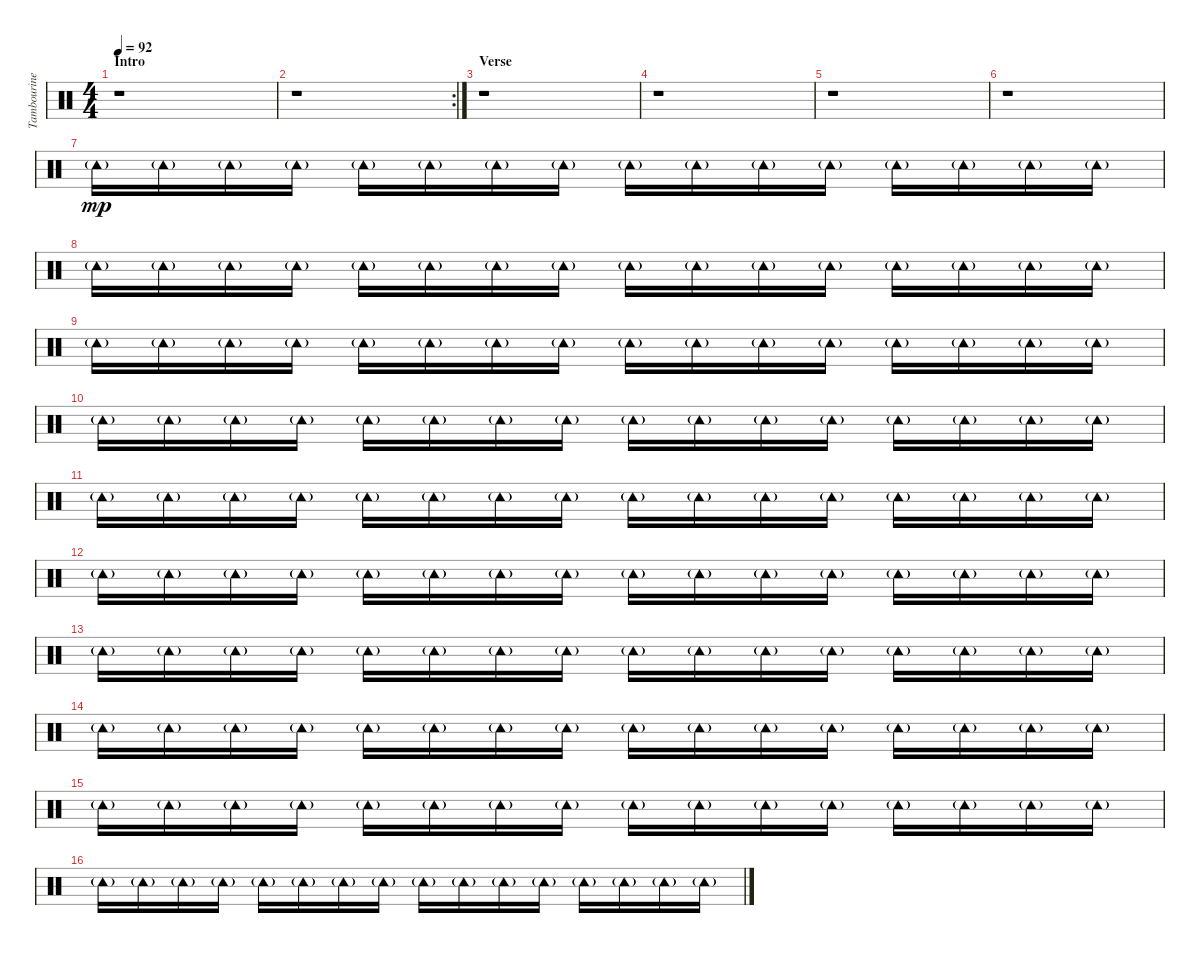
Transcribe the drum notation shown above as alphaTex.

\track ("Tambourine" "Tambourine") {instrument percussion}
\staff {score}
\articulation defaults
\ts (4 4)
\section ("" "Intro")
\tempo 92
\clef neutral
\ks c
r.1{dy mp} |
\rc 2
r.1 |
\section ("" "Verse")
r.1 |
r.1 |
r.1 |
r.1 |
"Tambourine (hit)"{g}.16 "Tambourine (hit)"{g}.16 "Tambourine (hit)"{g}.16 "Tambourine (hit)"{g}.16 "Tambourine (hit)"{g}.16 "Tambourine (hit)"{g}.16 "Tambourine (hit)"{g}.16 "Tambourine (hit)"{g}.16 "Tambourine (hit)"{g}.16 "Tambourine (hit)"{g}.16 "Tambourine (hit)"{g}.16 "Tambourine (hit)"{g}.16 "Tambourine (hit)"{g}.16 "Tambourine (hit)"{g}.16 "Tambourine (hit)"{g}.16 "Tambourine (hit)"{g}.16 |
"Tambourine (hit)"{g}.16 "Tambourine (hit)"{g}.16 "Tambourine (hit)"{g}.16 "Tambourine (hit)"{g}.16 "Tambourine (hit)"{g}.16 "Tambourine (hit)"{g}.16 "Tambourine (hit)"{g}.16 "Tambourine (hit)"{g}.16 "Tambourine (hit)"{g}.16 "Tambourine (hit)"{g}.16 "Tambourine (hit)"{g}.16 "Tambourine (hit)"{g}.16 "Tambourine (hit)"{g}.16 "Tambourine (hit)"{g}.16 "Tambourine (hit)"{g}.16 "Tambourine (hit)"{g}.16 |
"Tambourine (hit)"{g}.16 "Tambourine (hit)"{g}.16 "Tambourine (hit)"{g}.16 "Tambourine (hit)"{g}.16 "Tambourine (hit)"{g}.16 "Tambourine (hit)"{g}.16 "Tambourine (hit)"{g}.16 "Tambourine (hit)"{g}.16 "Tambourine (hit)"{g}.16 "Tambourine (hit)"{g}.16 "Tambourine (hit)"{g}.16 "Tambourine (hit)"{g}.16 "Tambourine (hit)"{g}.16 "Tambourine (hit)"{g}.16 "Tambourine (hit)"{g}.16 "Tambourine (hit)"{g}.16 |
"Tambourine (hit)"{g}.16 "Tambourine (hit)"{g}.16 "Tambourine (hit)"{g}.16 "Tambourine (hit)"{g}.16 "Tambourine (hit)"{g}.16 "Tambourine (hit)"{g}.16 "Tambourine (hit)"{g}.16 "Tambourine (hit)"{g}.16 "Tambourine (hit)"{g}.16 "Tambourine (hit)"{g}.16 "Tambourine (hit)"{g}.16 "Tambourine (hit)"{g}.16 "Tambourine (hit)"{g}.16 "Tambourine (hit)"{g}.16 "Tambourine (hit)"{g}.16 "Tambourine (hit)"{g}.16 |
"Tambourine (hit)"{g}.16 "Tambourine (hit)"{g}.16 "Tambourine (hit)"{g}.16 "Tambourine (hit)"{g}.16 "Tambourine (hit)"{g}.16 "Tambourine (hit)"{g}.16 "Tambourine (hit)"{g}.16 "Tambourine (hit)"{g}.16 "Tambourine (hit)"{g}.16 "Tambourine (hit)"{g}.16 "Tambourine (hit)"{g}.16 "Tambourine (hit)"{g}.16 "Tambourine (hit)"{g}.16 "Tambourine (hit)"{g}.16 "Tambourine (hit)"{g}.16 "Tambourine (hit)"{g}.16 |
"Tambourine (hit)"{g}.16 "Tambourine (hit)"{g}.16 "Tambourine (hit)"{g}.16 "Tambourine (hit)"{g}.16 "Tambourine (hit)"{g}.16 "Tambourine (hit)"{g}.16 "Tambourine (hit)"{g}.16 "Tambourine (hit)"{g}.16 "Tambourine (hit)"{g}.16 "Tambourine (hit)"{g}.16 "Tambourine (hit)"{g}.16 "Tambourine (hit)"{g}.16 "Tambourine (hit)"{g}.16 "Tambourine (hit)"{g}.16 "Tambourine (hit)"{g}.16 "Tambourine (hit)"{g}.16 |
"Tambourine (hit)"{g}.16 "Tambourine (hit)"{g}.16 "Tambourine (hit)"{g}.16 "Tambourine (hit)"{g}.16 "Tambourine (hit)"{g}.16 "Tambourine (hit)"{g}.16 "Tambourine (hit)"{g}.16 "Tambourine (hit)"{g}.16 "Tambourine (hit)"{g}.16 "Tambourine (hit)"{g}.16 "Tambourine (hit)"{g}.16 "Tambourine (hit)"{g}.16 "Tambourine (hit)"{g}.16 "Tambourine (hit)"{g}.16 "Tambourine (hit)"{g}.16 "Tambourine (hit)"{g}.16 |
"Tambourine (hit)"{g}.16 "Tambourine (hit)"{g}.16 "Tambourine (hit)"{g}.16 "Tambourine (hit)"{g}.16 "Tambourine (hit)"{g}.16 "Tambourine (hit)"{g}.16 "Tambourine (hit)"{g}.16 "Tambourine (hit)"{g}.16 "Tambourine (hit)"{g}.16 "Tambourine (hit)"{g}.16 "Tambourine (hit)"{g}.16 "Tambourine (hit)"{g}.16 "Tambourine (hit)"{g}.16 "Tambourine (hit)"{g}.16 "Tambourine (hit)"{g}.16 "Tambourine (hit)"{g}.16 |
"Tambourine (hit)"{g}.16 "Tambourine (hit)"{g}.16 "Tambourine (hit)"{g}.16 "Tambourine (hit)"{g}.16 "Tambourine (hit)"{g}.16 "Tambourine (hit)"{g}.16 "Tambourine (hit)"{g}.16 "Tambourine (hit)"{g}.16 "Tambourine (hit)"{g}.16 "Tambourine (hit)"{g}.16 "Tambourine (hit)"{g}.16 "Tambourine (hit)"{g}.16 "Tambourine (hit)"{g}.16 "Tambourine (hit)"{g}.16 "Tambourine (hit)"{g}.16 "Tambourine (hit)"{g}.16 |
"Tambourine (hit)"{g}.16 "Tambourine (hit)"{g}.16 "Tambourine (hit)"{g}.16 "Tambourine (hit)"{g}.16 "Tambourine (hit)"{g}.16 "Tambourine (hit)"{g}.16 "Tambourine (hit)"{g}.16 "Tambourine (hit)"{g}.16 "Tambourine (hit)"{g}.16 "Tambourine (hit)"{g}.16 "Tambourine (hit)"{g}.16 "Tambourine (hit)"{g}.16 "Tambourine (hit)"{g}.16 "Tambourine (hit)"{g}.16 "Tambourine (hit)"{g}.16 "Tambourine (hit)"{g}.16
